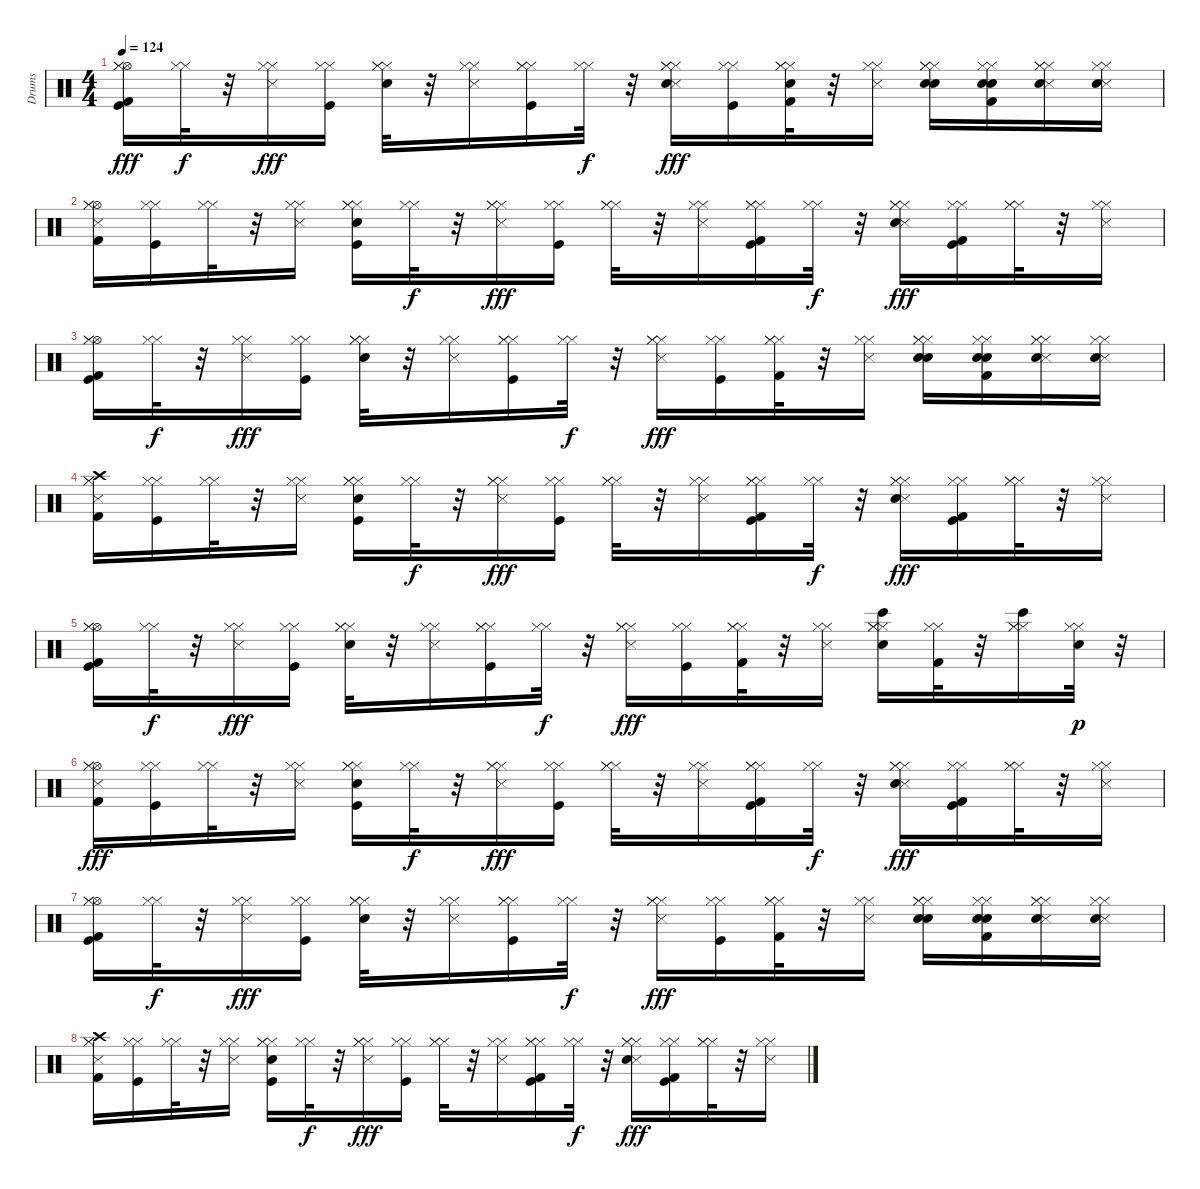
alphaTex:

\track ("Drums" "Drums") {instrument percussion}
\staff {score}
\articulation defaults
\ts (4 4)
\tempo 124
\clef neutral
\ks c
("Kick (hit)" "Kick (hit) 2" "Hi-Hat (open)" "Hi-Hat (closed)" "Hi-Hat (closed)").16{dy fff} ("Hi-Hat (closed)" "Hi-Hat (closed)").32{dy f} r.32 ("Metronome (hit)" "Hi-Hat (closed)" "Hi-Hat (closed)").16{dy fff} ("Kick (hit)" "Hi-Hat (closed)" "Hi-Hat (closed)").16 ("Hi-Hat (closed)" "Electric Snare (hit)" "Hi-Hat (closed)" "Hi-Hat (closed)").32 r.32 ("Metronome (hit)" "Hi-Hat (closed)" "Hi-Hat (closed)").16 ("Kick (hit)" "Hi-Hat (closed)" "Hi-Hat (closed)" "Hi-Hat (closed)").16 ("Hi-Hat (closed)" "Hi-Hat (closed)").32{dy f} r.32 ("Metronome (hit)" "Electric Snare (hit)" "Hi-Hat (closed)" "Hi-Hat (closed)" "Hi-Hat (closed)").16{dy fff} ("Kick (hit)" "Hi-Hat (closed)" "Hi-Hat (closed)").16 ("Electric Snare (hit)" "Kick (hit) 2" "Hi-Hat (closed)" "Hi-Hat (closed)" "Hi-Hat (closed)").32 r.32 ("Metronome (hit)" "Hi-Hat (closed)" "Hi-Hat (closed)").16 ("Hand Clap (hit)" "Hi-Hat (closed)" "Electric Snare (hit)" "Hi-Hat (closed)" "Hi-Hat (closed)").16 ("Hand Clap (hit)" "Electric Snare (hit)" "Kick (hit) 2" "Hi-Hat (closed)" "Hi-Hat (closed)").16 ("Snare (side stick) 3" "Electric Snare (hit)" "Hi-Hat (closed)" "Hi-Hat (closed)" "Hi-Hat (closed)").16 ("Snare (side stick) 3" "Electric Snare (hit)" "Hi-Hat (closed)" "Hi-Hat (closed)").16 |
("Metronome (hit)" "Kick (hit) 2" "Hi-Hat (open)" "Hi-Hat (closed)" "Hi-Hat (closed)").16 ("Kick (hit)" "Hi-Hat (closed)" "Hi-Hat (closed)").16 ("Hi-Hat (closed)" "Hi-Hat (closed)").32 r.32 ("Metronome (hit)" "Hi-Hat (closed)" "Hi-Hat (closed)").16 ("Kick (hit)" "Electric Snare (hit)" "Hi-Hat (closed)" "Hi-Hat (closed)" "Hi-Hat (closed)").16 ("Hi-Hat (closed)" "Hi-Hat (closed)").32{dy f} r.32 ("Metronome (hit)" "Hi-Hat (closed)" "Hi-Hat (closed)" "Hi-Hat (closed)").16{dy fff} ("Kick (hit)" "Hi-Hat (closed)" "Hi-Hat (closed)").16 ("Hi-Hat (closed)" "Hi-Hat (closed)" "Hi-Hat (closed)").32 r.32 ("Metronome (hit)" "Hi-Hat (closed)" "Hi-Hat (closed)").16 ("Kick (hit)" "Kick (hit) 2" "Hi-Hat (closed)" "Hi-Hat (closed)" "Hi-Hat (closed)").16 ("Hi-Hat (closed)" "Hi-Hat (closed)").32{dy f} r.32 ("Metronome (hit)" "Electric Snare (hit)" "Hi-Hat (closed)" "Hi-Hat (closed)" "Hi-Hat (closed)").16{dy fff} ("Kick (hit)" "Kick (hit) 2" "Hi-Hat (closed)" "Hi-Hat (closed)").16 ("Hi-Hat (closed)" "Hi-Hat (closed)" "Hi-Hat (closed)").32 r.32 ("Metronome (hit)" "Hi-Hat (closed)" "Hi-Hat (closed)").16 |
("Kick (hit)" "Kick (hit) 2" "Hi-Hat (open)" "Hi-Hat (closed)" "Hi-Hat (closed)").16 ("Hi-Hat (closed)" "Hi-Hat (closed)").32{dy f} r.32 ("Metronome (hit)" "Hi-Hat (closed)" "Hi-Hat (closed)").16{dy fff} ("Kick (hit)" "Hi-Hat (closed)" "Hi-Hat (closed)").16 ("Hi-Hat (closed)" "Electric Snare (hit)" "Hi-Hat (closed)" "Hi-Hat (closed)").32 r.32 ("Metronome (hit)" "Hi-Hat (closed)" "Hi-Hat (closed)").16 ("Kick (hit)" "Hi-Hat (closed)" "Hi-Hat (closed)" "Hi-Hat (closed)").16 ("Hi-Hat (closed)" "Hi-Hat (closed)").32{dy f} r.32 ("Metronome (hit)" "Hi-Hat (closed)" "Hi-Hat (closed)" "Hi-Hat (closed)").16{dy fff} ("Kick (hit)" "Hi-Hat (closed)" "Hi-Hat (closed)").16 ("Kick (hit) 2" "Hi-Hat (closed)" "Hi-Hat (closed)" "Hi-Hat (closed)").32 r.32 ("Metronome (hit)" "Hi-Hat (closed)" "Hi-Hat (closed)").16 ("Hand Clap (hit)" "Hi-Hat (closed)" "Electric Snare (hit)" "Hi-Hat (closed)" "Hi-Hat (closed)").16 ("Hand Clap (hit)" "Electric Snare (hit)" "Kick (hit) 2" "Hi-Hat (closed)" "Hi-Hat (closed)").16 ("Snare (side stick) 3" "Electric Snare (hit)" "Hi-Hat (closed)" "Hi-Hat (closed)" "Hi-Hat (closed)").16 ("Snare (side stick) 3" "Electric Snare (hit)" "Hi-Hat (closed)" "Hi-Hat (closed)").16 |
("Metronome (hit)" "Crash high (hit)" "Kick (hit) 2" "Hi-Hat (closed)" "Hi-Hat (closed)").16 ("Kick (hit)" "Hi-Hat (closed)" "Hi-Hat (closed)").16 ("Hi-Hat (closed)" "Hi-Hat (closed)").32 r.32 ("Metronome (hit)" "Hi-Hat (closed)" "Hi-Hat (closed)").16 ("Kick (hit)" "Hi-Hat (closed)" "Electric Snare (hit)" "Hi-Hat (closed)" "Hi-Hat (closed)").16 ("Hi-Hat (closed)" "Hi-Hat (closed)").32{dy f} r.32 ("Metronome (hit)" "Hi-Hat (closed)" "Hi-Hat (closed)" "Hi-Hat (closed)").16{dy fff} ("Kick (hit)" "Hi-Hat (closed)" "Hi-Hat (closed)").16 ("Hi-Hat (closed)" "Hi-Hat (closed)" "Hi-Hat (closed)").32 r.32 ("Metronome (hit)" "Hi-Hat (closed)" "Hi-Hat (closed)").16 ("Kick (hit)" "Hi-Hat (closed)" "Kick (hit) 2" "Hi-Hat (closed)" "Hi-Hat (closed)").16 ("Hi-Hat (closed)" "Hi-Hat (closed)").32{dy f} r.32 ("Metronome (hit)" "Hi-Hat (closed)" "Electric Snare (hit)" "Hi-Hat (closed)" "Hi-Hat (closed)").16{dy fff} ("Kick (hit)" "Kick (hit) 2" "Hi-Hat (closed)" "Hi-Hat (closed)").16 ("Hi-Hat (closed)" "Hi-Hat (closed)" "Hi-Hat (closed)").32 r.32 ("Metronome (hit)" "Hi-Hat (closed)" "Hi-Hat (closed)").16 |
("Kick (hit)" "Hi-Hat (open)" "Kick (hit) 2" "Hi-Hat (closed)" "Hi-Hat (closed)").16 ("Hi-Hat (closed)" "Hi-Hat (closed)").32{dy f} r.32 ("Metronome (hit)" "Hi-Hat (closed)" "Hi-Hat (closed)").16{dy fff} ("Kick (hit)" "Hi-Hat (closed)" "Hi-Hat (closed)").16 ("Electric Snare (hit)" "Hi-Hat (closed)" "Hi-Hat (closed)" "Hi-Hat (closed)").32 r.32 ("Metronome (hit)" "Hi-Hat (closed)" "Hi-Hat (closed)").16 ("Kick (hit)" "Hi-Hat (closed)" "Hi-Hat (closed)" "Hi-Hat (closed)").16 ("Hi-Hat (closed)" "Hi-Hat (closed)").32{dy f} r.32 ("Metronome (hit)" "Hi-Hat (closed)" "Hi-Hat (closed)" "Hi-Hat (closed)").16{dy fff} ("Kick (hit)" "Hi-Hat (closed)" "Hi-Hat (closed)").16 ("Hi-Hat (closed)" "Kick (hit) 2" "Hi-Hat (closed)" "Hi-Hat (closed)").32 r.32 ("Metronome (hit)" "Hi-Hat (closed)" "Hi-Hat (closed)").16 ("Bongo High (hit)" "Electric Snare (hit)" "Hi-Hat (closed)" "Hi-Hat (closed)" "Hi-Hat (closed)").16 ("Kick (hit) 2" "Hi-Hat (closed)" "Hi-Hat (closed)").32 r.32 ("Bongo High (hit)" "Hi-Hat (closed)" "Hi-Hat (closed)" "Hi-Hat (closed)").16 ("Hi-Hat (closed)" "Hi-Hat (closed)" "Electric Snare (hit)").32{dy p} r.32 |
("Metronome (hit)" "Kick (hit) 2" "Hi-Hat (open)" "Hi-Hat (closed)" "Hi-Hat (closed)").16{dy fff} ("Kick (hit)" "Hi-Hat (closed)" "Hi-Hat (closed)").16 ("Hi-Hat (closed)" "Hi-Hat (closed)").32 r.32 ("Metronome (hit)" "Hi-Hat (closed)" "Hi-Hat (closed)").16 ("Kick (hit)" "Electric Snare (hit)" "Hi-Hat (closed)" "Hi-Hat (closed)" "Hi-Hat (closed)").16 ("Hi-Hat (closed)" "Hi-Hat (closed)").32{dy f} r.32 ("Metronome (hit)" "Hi-Hat (closed)" "Hi-Hat (closed)" "Hi-Hat (closed)").16{dy fff} ("Kick (hit)" "Hi-Hat (closed)" "Hi-Hat (closed)").16 ("Hi-Hat (closed)" "Hi-Hat (closed)" "Hi-Hat (closed)").32 r.32 ("Metronome (hit)" "Hi-Hat (closed)" "Hi-Hat (closed)").16 ("Kick (hit)" "Kick (hit) 2" "Hi-Hat (closed)" "Hi-Hat (closed)" "Hi-Hat (closed)").16 ("Hi-Hat (closed)" "Hi-Hat (closed)").32{dy f} r.32 ("Metronome (hit)" "Electric Snare (hit)" "Hi-Hat (closed)" "Hi-Hat (closed)" "Hi-Hat (closed)").16{dy fff} ("Kick (hit)" "Kick (hit) 2" "Hi-Hat (closed)" "Hi-Hat (closed)").16 ("Hi-Hat (closed)" "Hi-Hat (closed)" "Hi-Hat (closed)").32 r.32 ("Metronome (hit)" "Hi-Hat (closed)" "Hi-Hat (closed)").16 |
("Kick (hit)" "Kick (hit) 2" "Hi-Hat (open)" "Hi-Hat (closed)" "Hi-Hat (closed)").16 ("Hi-Hat (closed)" "Hi-Hat (closed)").32{dy f} r.32 ("Metronome (hit)" "Hi-Hat (closed)" "Hi-Hat (closed)").16{dy fff} ("Kick (hit)" "Hi-Hat (closed)" "Hi-Hat (closed)").16 ("Hi-Hat (closed)" "Electric Snare (hit)" "Hi-Hat (closed)" "Hi-Hat (closed)").32 r.32 ("Metronome (hit)" "Hi-Hat (closed)" "Hi-Hat (closed)").16 ("Kick (hit)" "Hi-Hat (closed)" "Hi-Hat (closed)" "Hi-Hat (closed)").16 ("Hi-Hat (closed)" "Hi-Hat (closed)").32{dy f} r.32 ("Metronome (hit)" "Hi-Hat (closed)" "Hi-Hat (closed)" "Hi-Hat (closed)").16{dy fff} ("Kick (hit)" "Hi-Hat (closed)" "Hi-Hat (closed)").16 ("Kick (hit) 2" "Hi-Hat (closed)" "Hi-Hat (closed)" "Hi-Hat (closed)").32 r.32 ("Metronome (hit)" "Hi-Hat (closed)" "Hi-Hat (closed)").16 ("Hand Clap (hit)" "Hi-Hat (closed)" "Electric Snare (hit)" "Hi-Hat (closed)" "Hi-Hat (closed)").16 ("Hand Clap (hit)" "Electric Snare (hit)" "Kick (hit) 2" "Hi-Hat (closed)" "Hi-Hat (closed)").16 ("Snare (side stick) 3" "Electric Snare (hit)" "Hi-Hat (closed)" "Hi-Hat (closed)" "Hi-Hat (closed)").16 ("Snare (side stick) 3" "Electric Snare (hit)" "Hi-Hat (closed)" "Hi-Hat (closed)").16 |
("Metronome (hit)" "Crash high (hit)" "Kick (hit) 2" "Hi-Hat (closed)" "Hi-Hat (closed)").16 ("Kick (hit)" "Hi-Hat (closed)" "Hi-Hat (closed)").16 ("Hi-Hat (closed)" "Hi-Hat (closed)").32 r.32 ("Metronome (hit)" "Hi-Hat (closed)" "Hi-Hat (closed)").16 ("Kick (hit)" "Hi-Hat (closed)" "Electric Snare (hit)" "Hi-Hat (closed)" "Hi-Hat (closed)").16 ("Hi-Hat (closed)" "Hi-Hat (closed)").32{dy f} r.32 ("Metronome (hit)" "Hi-Hat (closed)" "Hi-Hat (closed)" "Hi-Hat (closed)").16{dy fff} ("Kick (hit)" "Hi-Hat (closed)" "Hi-Hat (closed)").16 ("Hi-Hat (closed)" "Hi-Hat (closed)" "Hi-Hat (closed)").32 r.32 ("Metronome (hit)" "Hi-Hat (closed)" "Hi-Hat (closed)").16 ("Kick (hit)" "Hi-Hat (closed)" "Kick (hit) 2" "Hi-Hat (closed)" "Hi-Hat (closed)").16 ("Hi-Hat (closed)" "Hi-Hat (closed)").32{dy f} r.32 ("Metronome (hit)" "Hi-Hat (closed)" "Electric Snare (hit)" "Hi-Hat (closed)" "Hi-Hat (closed)").16{dy fff} ("Kick (hit)" "Kick (hit) 2" "Hi-Hat (closed)" "Hi-Hat (closed)").16 ("Hi-Hat (closed)" "Hi-Hat (closed)" "Hi-Hat (closed)").32 r.32 ("Metronome (hit)" "Hi-Hat (closed)" "Hi-Hat (closed)").16
